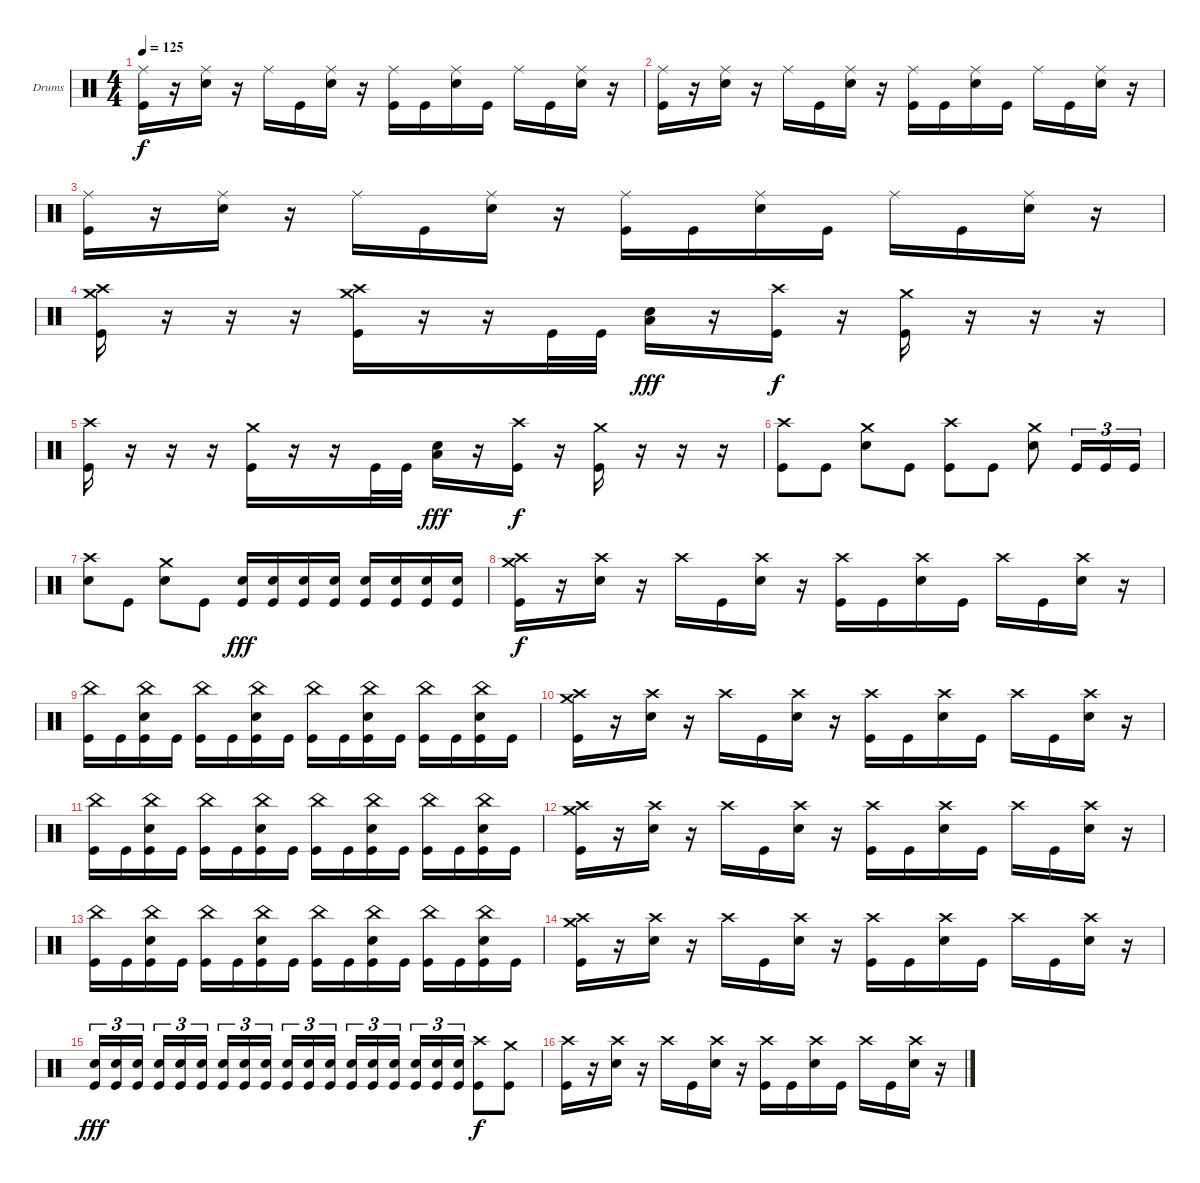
\bracketExtendMode groupsimilarinstruments
\firstSystemTrackNameOrientation horizontal
\otherSystemsTrackNameOrientation horizontal
\track ("Drumkit" "Drums") {instrument percussion}
\staff {score}
\articulation defaults
\ts (4 4)
\tempo 125
\clef neutral
\ks c
("Ride (middle)" "Kick (hit)").16{dy f} r.16 ("Ride (middle)" "Snare (hit) 2").16 r.16 "Ride (middle)".16 "Kick (hit)".16 ("Ride (middle)" "Snare (hit) 2").16 r.16 ("Ride (middle)" "Kick (hit)").16 "Kick (hit)".16 ("Ride (middle)" "Snare (hit) 2").16 "Kick (hit)".16 "Ride (middle)".16 "Kick (hit)".16 ("Ride (middle)" "Snare (hit) 2").16 r.16 |
("Ride (middle)" "Kick (hit)").16 r.16 ("Ride (middle)" "Snare (hit) 2").16 r.16 "Ride (middle)".16 "Kick (hit)".16 ("Ride (middle)" "Snare (hit) 2").16 r.16 ("Ride (middle)" "Kick (hit)").16 "Kick (hit)".16 ("Ride (middle)" "Snare (hit) 2").16 "Kick (hit)".16 "Ride (middle)".16 "Kick (hit)".16 ("Ride (middle)" "Snare (hit) 2").16 r.16 |
("Ride (middle)" "Kick (hit)").16 r.16 ("Ride (middle)" "Snare (hit) 2").16 r.16 "Ride (middle)".16 "Kick (hit)".16 ("Ride (middle)" "Snare (hit) 2").16 r.16 ("Ride (middle)" "Kick (hit)").16 "Kick (hit)".16 ("Ride (middle)" "Snare (hit) 2").16 "Kick (hit)".16 "Ride (middle)".16 "Kick (hit)".16 ("Ride (middle)" "Snare (hit) 2").16 r.16 |
("Crash medium (hit)" "Crash high (hit)" "Kick (hit)").16 r.16 r.16 r.16 ("Crash medium (hit)" "Crash high (hit)" "Kick (hit)").16 r.16 r.16 "Kick (hit)".32 "Kick (hit)".32 ("Snare (hit) 2" "Low Tom (hit)").16{dy fff} r.16 ("Crash high (hit)" "Kick (hit)").16{dy f} r.16 ("Crash medium (hit)" "Kick (hit)").16 r.16 r.16 r.16 |
("Crash high (hit)" "Kick (hit)").16 r.16 r.16 r.16 ("Crash medium (hit)" "Kick (hit)").16 r.16 r.16 "Kick (hit)".32 "Kick (hit)".32 ("Snare (hit) 2" "Low Tom (hit)").16{dy fff} r.16 ("Crash high (hit)" "Kick (hit)").16{dy f} r.16 ("Crash medium (hit)" "Kick (hit)").16 r.16 r.16 r.16 |
("Crash high (hit)" "Kick (hit)").8 "Kick (hit)".8 ("Crash medium (hit)" "Snare (hit) 2").8 "Kick (hit)".8 ("Crash high (hit)" "Kick (hit)").8 "Kick (hit)".8 ("Crash medium (hit)" "Snare (hit) 2").8 "Kick (hit)".16{tu (3 2)} "Kick (hit)".16{tu (3 2)} "Kick (hit)".16{tu (3 2)} |
("Crash high (hit)" "Snare (hit) 2").8 "Kick (hit)".8 ("Crash medium (hit)" "Snare (hit) 2").8 "Kick (hit)".8 ("Snare (hit) 2" "Kick (hit)").16{dy fff} ("Snare (hit) 2" "Kick (hit)").16 ("Snare (hit) 2" "Kick (hit)").16 ("Snare (hit) 2" "Kick (hit)").16 ("Snare (hit) 2" "Kick (hit)").16 ("Snare (hit) 2" "Kick (hit)").16 ("Snare (hit) 2" "Kick (hit)").16 ("Snare (hit) 2" "Kick (hit)").16 |
("Crash medium (hit)" "Crash high (hit)" "Kick (hit)").16{dy f} r.16 ("Crash high (hit)" "Snare (hit) 2").16 r.16 "Crash high (hit)".16 "Kick (hit)".16 ("Crash high (hit)" "Snare (hit) 2").16 r.16 ("Crash high (hit)" "Kick (hit)").16 "Kick (hit)".16 ("Crash high (hit)" "Snare (hit) 2").16 "Kick (hit)".16 "Crash high (hit)".16 "Kick (hit)".16 ("Crash high (hit)" "Snare (hit) 2").16 r.16 |
("China (hit)" "Kick (hit)").16 "Kick (hit)".16 ("China (hit)" "Snare (hit) 2" "Kick (hit)").16 "Kick (hit)".16 ("China (hit)" "Kick (hit)").16 "Kick (hit)".16 ("China (hit)" "Snare (hit) 2" "Kick (hit)").16 "Kick (hit)".16 ("China (hit)" "Kick (hit)").16 "Kick (hit)".16 ("China (hit)" "Snare (hit) 2" "Kick (hit)").16 "Kick (hit)".16 ("China (hit)" "Kick (hit)").16 "Kick (hit)".16 ("China (hit)" "Snare (hit) 2" "Kick (hit)").16 "Kick (hit)".16 |
("Crash medium (hit)" "Crash high (hit)" "Kick (hit)").16 r.16 ("Crash high (hit)" "Snare (hit) 2").16 r.16 "Crash high (hit)".16 "Kick (hit)".16 ("Crash high (hit)" "Snare (hit) 2").16 r.16 ("Crash high (hit)" "Kick (hit)").16 "Kick (hit)".16 ("Crash high (hit)" "Snare (hit) 2").16 "Kick (hit)".16 "Crash high (hit)".16 "Kick (hit)".16 ("Crash high (hit)" "Snare (hit) 2").16 r.16 |
("China (hit)" "Kick (hit)").16 "Kick (hit)".16 ("China (hit)" "Snare (hit) 2" "Kick (hit)").16 "Kick (hit)".16 ("China (hit)" "Kick (hit)").16 "Kick (hit)".16 ("China (hit)" "Snare (hit) 2" "Kick (hit)").16 "Kick (hit)".16 ("China (hit)" "Kick (hit)").16 "Kick (hit)".16 ("China (hit)" "Snare (hit) 2" "Kick (hit)").16 "Kick (hit)".16 ("China (hit)" "Kick (hit)").16 "Kick (hit)".16 ("China (hit)" "Snare (hit) 2" "Kick (hit)").16 "Kick (hit)".16 |
("Crash medium (hit)" "Crash high (hit)" "Kick (hit)").16 r.16 ("Crash high (hit)" "Snare (hit) 2").16 r.16 "Crash high (hit)".16 "Kick (hit)".16 ("Crash high (hit)" "Snare (hit) 2").16 r.16 ("Crash high (hit)" "Kick (hit)").16 "Kick (hit)".16 ("Crash high (hit)" "Snare (hit) 2").16 "Kick (hit)".16 "Crash high (hit)".16 "Kick (hit)".16 ("Crash high (hit)" "Snare (hit) 2").16 r.16 |
("China (hit)" "Kick (hit)").16 "Kick (hit)".16 ("China (hit)" "Snare (hit) 2" "Kick (hit)").16 "Kick (hit)".16 ("China (hit)" "Kick (hit)").16 "Kick (hit)".16 ("China (hit)" "Snare (hit) 2" "Kick (hit)").16 "Kick (hit)".16 ("China (hit)" "Kick (hit)").16 "Kick (hit)".16 ("China (hit)" "Snare (hit) 2" "Kick (hit)").16 "Kick (hit)".16 ("China (hit)" "Kick (hit)").16 "Kick (hit)".16 ("China (hit)" "Snare (hit) 2" "Kick (hit)").16 "Kick (hit)".16 |
("Crash medium (hit)" "Crash high (hit)" "Kick (hit)").16 r.16 ("Crash high (hit)" "Snare (hit) 2").16 r.16 "Crash high (hit)".16 "Kick (hit)".16 ("Crash high (hit)" "Snare (hit) 2").16 r.16 ("Crash high (hit)" "Kick (hit)").16 "Kick (hit)".16 ("Crash high (hit)" "Snare (hit) 2").16 "Kick (hit)".16 "Crash high (hit)".16 "Kick (hit)".16 ("Crash high (hit)" "Snare (hit) 2").16 r.16 |
("Snare (hit) 2" "Kick (hit)").16{tu (3 2) dy fff} ("Snare (hit) 2" "Kick (hit)").16{tu (3 2)} ("Snare (hit) 2" "Kick (hit)").16{tu (3 2)} ("Snare (hit) 2" "Kick (hit)").16{tu (3 2)} ("Snare (hit) 2" "Kick (hit)").16{tu (3 2)} ("Snare (hit) 2" "Kick (hit)").16{tu (3 2)} ("Snare (hit) 2" "Kick (hit)").16{tu (3 2)} ("Snare (hit) 2" "Kick (hit)").16{tu (3 2)} ("Snare (hit) 2" "Kick (hit)").16{tu (3 2)} ("Snare (hit) 2" "Kick (hit)").16{tu (3 2)} ("Snare (hit) 2" "Kick (hit)").16{tu (3 2)} ("Snare (hit) 2" "Kick (hit)").16{tu (3 2)} ("Snare (hit) 2" "Kick (hit)").16{tu (3 2)} ("Snare (hit) 2" "Kick (hit)").16{tu (3 2)} ("Snare (hit) 2" "Kick (hit)").16{tu (3 2)} ("Snare (hit) 2" "Kick (hit)").16{tu (3 2)} ("Snare (hit) 2" "Kick (hit)").16{tu (3 2)} ("Snare (hit) 2" "Kick (hit)").16{tu (3 2)} ("Crash high (hit)" "Kick (hit)").8{dy f} ("Crash medium (hit)" "Kick (hit)").8 |
("Crash high (hit)" "Kick (hit)").16 r.16 ("Crash high (hit)" "Snare (hit) 2").16 r.16 "Crash high (hit)".16 "Kick (hit)".16 ("Crash high (hit)" "Snare (hit) 2").16 r.16 ("Crash high (hit)" "Kick (hit)").16 "Kick (hit)".16 ("Crash high (hit)" "Snare (hit) 2").16 "Kick (hit)".16 "Crash high (hit)".16 "Kick (hit)".16 ("Crash high (hit)" "Snare (hit) 2").16 r.16
